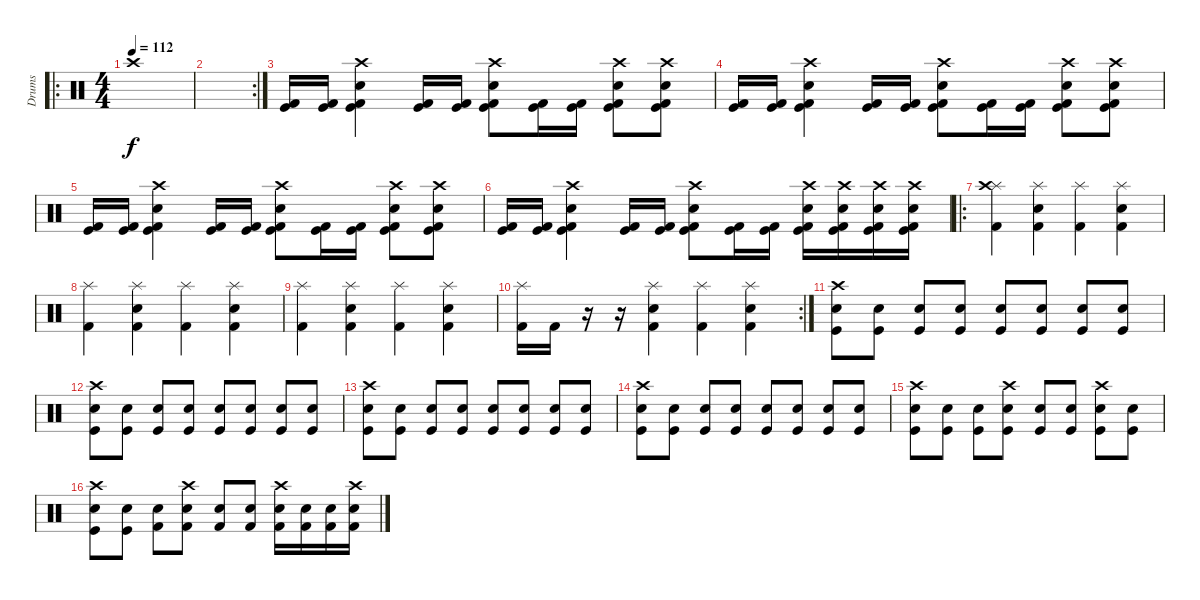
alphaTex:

\track ("Drums" "Drums") {instrument percussion}
\staff {score}
\articulation defaults
\ro
\ts (4 4)
\tempo 112
\clef neutral
\ks c "Crash high (hit)".1{dy f}
|
\rc 2
|
("Kick (hit)" "Kick (hit) 2").16 ("Kick (hit)" "Kick (hit) 2").16 ("Crash high (hit)" "Electric Snare (hit)" "Kick (hit)" "Kick (hit) 2").4 ("Kick (hit)" "Kick (hit) 2").16 ("Kick (hit)" "Kick (hit) 2").16 ("Crash high (hit)" "Electric Snare (hit)" "Kick (hit)" "Kick (hit) 2").8 ("Kick (hit)" "Kick (hit) 2").16 ("Kick (hit)" "Kick (hit) 2").16 ("Crash high (hit)" "Electric Snare (hit)" "Kick (hit)" "Kick (hit) 2").8 ("Crash high (hit)" "Electric Snare (hit)" "Kick (hit)" "Kick (hit) 2").8 |
("Kick (hit)" "Kick (hit) 2").16 ("Kick (hit)" "Kick (hit) 2").16 ("Crash high (hit)" "Electric Snare (hit)" "Kick (hit)" "Kick (hit) 2").4 ("Kick (hit)" "Kick (hit) 2").16 ("Kick (hit)" "Kick (hit) 2").16 ("Crash high (hit)" "Electric Snare (hit)" "Kick (hit)" "Kick (hit) 2").8 ("Kick (hit)" "Kick (hit) 2").16 ("Kick (hit)" "Kick (hit) 2").16 ("Crash high (hit)" "Electric Snare (hit)" "Kick (hit)" "Kick (hit) 2").8 ("Crash high (hit)" "Electric Snare (hit)" "Kick (hit)" "Kick (hit) 2").8 |
("Kick (hit)" "Kick (hit) 2").16 ("Kick (hit)" "Kick (hit) 2").16 ("Crash high (hit)" "Electric Snare (hit)" "Kick (hit)" "Kick (hit) 2").4 ("Kick (hit)" "Kick (hit) 2").16 ("Kick (hit)" "Kick (hit) 2").16 ("Crash high (hit)" "Electric Snare (hit)" "Kick (hit)" "Kick (hit) 2").8 ("Kick (hit)" "Kick (hit) 2").16 ("Kick (hit)" "Kick (hit) 2").16 ("Crash high (hit)" "Electric Snare (hit)" "Kick (hit)" "Kick (hit) 2").8 ("Crash high (hit)" "Electric Snare (hit)" "Kick (hit)" "Kick (hit) 2").8 |
("Kick (hit)" "Kick (hit) 2").16 ("Kick (hit)" "Kick (hit) 2").16 ("Crash high (hit)" "Electric Snare (hit)" "Kick (hit)" "Kick (hit) 2").4 ("Kick (hit)" "Kick (hit) 2").16 ("Kick (hit)" "Kick (hit) 2").16 ("Crash high (hit)" "Electric Snare (hit)" "Kick (hit)" "Kick (hit) 2").8 ("Kick (hit)" "Kick (hit) 2").16 ("Kick (hit)" "Kick (hit) 2").16 ("Crash high (hit)" "Electric Snare (hit)" "Kick (hit)" "Kick (hit) 2").16 ("Crash high (hit)" "Electric Snare (hit)" "Kick (hit)" "Kick (hit) 2").16 ("Crash high (hit)" "Electric Snare (hit)" "Kick (hit)" "Kick (hit) 2").16 ("Crash high (hit)" "Electric Snare (hit)" "Kick (hit)" "Kick (hit) 2").16 |
\ro
("Splash (hit)" "Crash high (hit)" "Kick (hit) 2").4 ("Splash (hit)" "Electric Snare (hit)" "Kick (hit) 2").4 ("Splash (hit)" "Kick (hit) 2").4 ("Splash (hit)" "Electric Snare (hit)" "Kick (hit) 2").4 |
("Splash (hit)" "Kick (hit) 2").4 ("Splash (hit)" "Electric Snare (hit)" "Kick (hit) 2").4 ("Splash (hit)" "Kick (hit) 2").4 ("Splash (hit)" "Electric Snare (hit)" "Kick (hit) 2").4 |
("Splash (hit)" "Kick (hit) 2").4 ("Splash (hit)" "Electric Snare (hit)" "Kick (hit) 2").4 ("Splash (hit)" "Kick (hit) 2").4 ("Splash (hit)" "Electric Snare (hit)" "Kick (hit) 2").4 |
\rc 2
("Splash (hit)" "Kick (hit) 2").16 "Kick (hit) 2".16 r.16 r.16 ("Splash (hit)" "Electric Snare (hit)" "Kick (hit) 2").4 ("Splash (hit)" "Kick (hit) 2").4 ("Splash (hit)" "Electric Snare (hit)" "Kick (hit) 2").4 |
("Crash high (hit)" "Electric Snare (hit)" "Kick (hit)").8 ("Electric Snare (hit)" "Kick (hit)").8 ("Electric Snare (hit)" "Kick (hit)").8 ("Electric Snare (hit)" "Kick (hit)").8 ("Electric Snare (hit)" "Kick (hit)").8 ("Electric Snare (hit)" "Kick (hit)").8 ("Electric Snare (hit)" "Kick (hit)").8 ("Electric Snare (hit)" "Kick (hit)").8 |
("Crash high (hit)" "Electric Snare (hit)" "Kick (hit)").8 ("Electric Snare (hit)" "Kick (hit)").8 ("Electric Snare (hit)" "Kick (hit)").8 ("Electric Snare (hit)" "Kick (hit)").8 ("Electric Snare (hit)" "Kick (hit)").8 ("Electric Snare (hit)" "Kick (hit)").8 ("Electric Snare (hit)" "Kick (hit)").8 ("Electric Snare (hit)" "Kick (hit)").8 |
("Crash high (hit)" "Electric Snare (hit)" "Kick (hit)").8 ("Electric Snare (hit)" "Kick (hit)").8 ("Electric Snare (hit)" "Kick (hit)").8 ("Electric Snare (hit)" "Kick (hit)").8 ("Electric Snare (hit)" "Kick (hit)").8 ("Electric Snare (hit)" "Kick (hit)").8 ("Electric Snare (hit)" "Kick (hit)").8 ("Electric Snare (hit)" "Kick (hit)").8 |
("Crash high (hit)" "Electric Snare (hit)" "Kick (hit)").8 ("Electric Snare (hit)" "Kick (hit)").8 ("Electric Snare (hit)" "Kick (hit)").8 ("Electric Snare (hit)" "Kick (hit)").8 ("Electric Snare (hit)" "Kick (hit)").8 ("Electric Snare (hit)" "Kick (hit)").8 ("Electric Snare (hit)" "Kick (hit)").8 ("Electric Snare (hit)" "Kick (hit)").8 |
("Crash high (hit)" "Electric Snare (hit)" "Kick (hit)").8 ("Electric Snare (hit)" "Kick (hit)").8 ("Electric Snare (hit)" "Kick (hit)").8 ("Crash high (hit)" "Electric Snare (hit)" "Kick (hit)").8 ("Electric Snare (hit)" "Kick (hit)").8 ("Electric Snare (hit)" "Kick (hit)").8 ("Crash high (hit)" "Electric Snare (hit)" "Kick (hit)").8 ("Electric Snare (hit)" "Kick (hit)").8 |
("Crash high (hit)" "Electric Snare (hit)" "Kick (hit)").8 ("Electric Snare (hit)" "Kick (hit)").8 ("Electric Snare (hit)" "Kick (hit) 2").8 ("Crash high (hit)" "Electric Snare (hit)" "Kick (hit) 2").8 ("Electric Snare (hit)" "Kick (hit) 2").8 ("Electric Snare (hit)" "Kick (hit) 2").8 ("Crash high (hit)" "Electric Snare (hit)" "Kick (hit) 2").16 ("Electric Snare (hit)" "Kick (hit) 2").16 ("Electric Snare (hit)" "Kick (hit) 2").16 ("Crash high (hit)" "Electric Snare (hit)" "Kick (hit) 2").16
